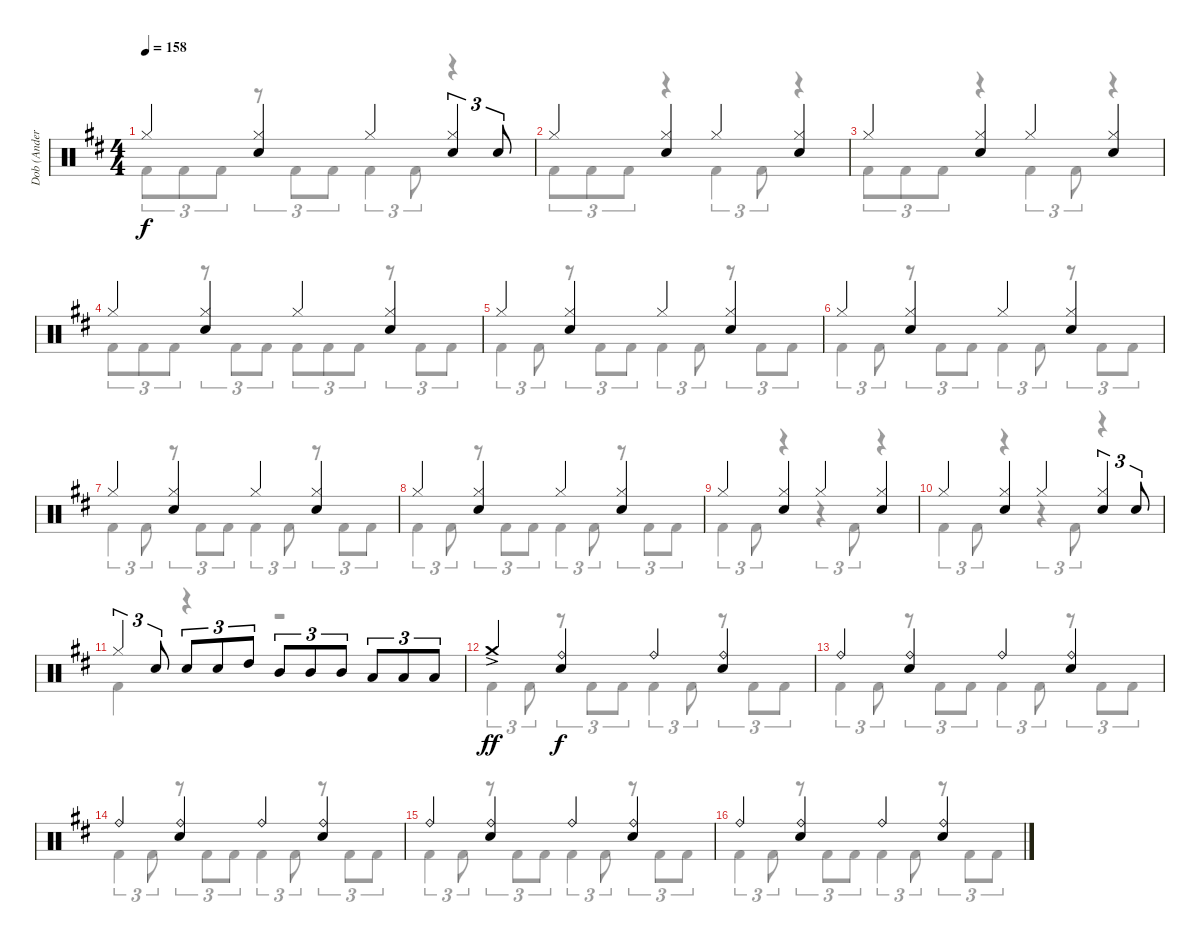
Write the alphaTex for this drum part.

\track ("Dob (Anders Johansson)" "Dob (Ander") {instrument percussion}
\staff {score}
\articulation defaults
\voice
\ts (4 4)
\tempo 158
\clef neutral
\ks d "Hi-Hat (closed)".4{dy f}
("Hi-Hat (closed)" "Electric Snare (hit)").4 "Hi-Hat (closed)".4 ("Hi-Hat (closed)" "Electric Snare (hit)").4{tu (3 2)} "Electric Snare (hit)".8{tu (3 2)} |
"Hi-Hat (closed)".4 ("Hi-Hat (closed)" "Electric Snare (hit)").4 "Hi-Hat (closed)".4 ("Hi-Hat (closed)" "Electric Snare (hit)").4 |
"Hi-Hat (closed)".4 ("Hi-Hat (closed)" "Electric Snare (hit)").4 "Hi-Hat (closed)".4 ("Hi-Hat (closed)" "Electric Snare (hit)").4 |
"Hi-Hat (closed)".4 ("Hi-Hat (closed)" "Electric Snare (hit)").4 "Hi-Hat (closed)".4 ("Hi-Hat (closed)" "Electric Snare (hit)").4 |
"Hi-Hat (closed)".4 ("Hi-Hat (closed)" "Electric Snare (hit)").4 "Hi-Hat (closed)".4 ("Hi-Hat (closed)" "Electric Snare (hit)").4 |
"Hi-Hat (closed)".4 ("Hi-Hat (closed)" "Electric Snare (hit)").4 "Hi-Hat (closed)".4 ("Hi-Hat (closed)" "Electric Snare (hit)").4 |
"Hi-Hat (closed)".4 ("Hi-Hat (closed)" "Electric Snare (hit)").4 "Hi-Hat (closed)".4 ("Hi-Hat (closed)" "Electric Snare (hit)").4 |
"Hi-Hat (closed)".4 ("Hi-Hat (closed)" "Electric Snare (hit)").4 "Hi-Hat (closed)".4 ("Hi-Hat (closed)" "Electric Snare (hit)").4 |
"Hi-Hat (closed)".4 ("Hi-Hat (closed)" "Electric Snare (hit)").4 "Hi-Hat (closed)".4 ("Hi-Hat (closed)" "Electric Snare (hit)").4 |
"Hi-Hat (closed)".4 ("Hi-Hat (closed)" "Electric Snare (hit)").4 "Hi-Hat (closed)".4 ("Hi-Hat (closed)" "Electric Snare (hit)").4{tu (3 2)} "Electric Snare (hit)".8{tu (3 2)} |
"Hi-Hat (closed)".4{tu (3 2)} "Electric Snare (hit)".8{tu (3 2)} "Electric Snare (hit)".8{tu (3 2)} "Electric Snare (hit)".8{tu (3 2)} "High Tom (hit)".8{tu (3 2)} "Mid Tom (hit)".8{tu (3 2)} "Mid Tom (hit)".8{tu (3 2)} "Mid Tom (hit)".8{tu (3 2)} "Low Tom (hit)".8{tu (3 2)} "Low Tom (hit)".8{tu (3 2)} "Low Tom (hit)".8{tu (3 2)} |
"Crash medium (hit)"{ac}.4{dy ff} ("Ride (bell)" "Electric Snare (hit)").4{dy f} "Ride (bell)".4 ("Ride (bell)" "Electric Snare (hit)").4 |
"Ride (bell)".4 ("Ride (bell)" "Electric Snare (hit)").4 "Ride (bell)".4 ("Ride (bell)" "Electric Snare (hit)").4 |
"Ride (bell)".4 ("Ride (bell)" "Electric Snare (hit)").4 "Ride (bell)".4 ("Ride (bell)" "Electric Snare (hit)").4 |
"Ride (bell)".4 ("Ride (bell)" "Electric Snare (hit)").4 "Ride (bell)".4 ("Ride (bell)" "Electric Snare (hit)").4 |
"Ride (bell)".4 ("Ride (bell)" "Electric Snare (hit)").4 "Ride (bell)".4 ("Ride (bell)" "Electric Snare (hit)").4
\voice
\clef neutral
\ottava regular
\simile none
\ks d "Kick (hit) 2".8{tu (3 2) dy f} "Kick (hit) 2".8{tu (3 2)} "Kick (hit) 2".8{tu (3 2)}
r.8{tu (3 2)} "Kick (hit) 2".8{tu (3 2)} "Kick (hit) 2".8{tu (3 2)} "Kick (hit) 2".4{tu (3 2)} "Kick (hit) 2".8{tu (3 2)} r.4 |
"Kick (hit) 2".8{tu (3 2)} "Kick (hit) 2".8{tu (3 2)} "Kick (hit) 2".8{tu (3 2)} r.4 "Kick (hit) 2".4{tu (3 2)} "Kick (hit) 2".8{tu (3 2)} r.4 |
"Kick (hit) 2".8{tu (3 2)} "Kick (hit) 2".8{tu (3 2)} "Kick (hit) 2".8{tu (3 2)} r.4 "Kick (hit) 2".4{tu (3 2)} "Kick (hit) 2".8{tu (3 2)} r.4 |
"Kick (hit) 2".8{tu (3 2)} "Kick (hit) 2".8{tu (3 2)} "Kick (hit) 2".8{tu (3 2)} r.8{tu (3 2)} "Kick (hit) 2".8{tu (3 2)} "Kick (hit) 2".8{tu (3 2)} "Kick (hit) 2".8{tu (3 2)} "Kick (hit) 2".8{tu (3 2)} "Kick (hit) 2".8{tu (3 2)} r.8{tu (3 2)} "Kick (hit) 2".8{tu (3 2)} "Kick (hit) 2".8{tu (3 2)} |
"Kick (hit) 2".4{tu (3 2)} "Kick (hit) 2".8{tu (3 2)} r.8{tu (3 2)} "Kick (hit) 2".8{tu (3 2)} "Kick (hit) 2".8{tu (3 2)} "Kick (hit) 2".4{tu (3 2)} "Kick (hit) 2".8{tu (3 2)} r.8{tu (3 2)} "Kick (hit) 2".8{tu (3 2)} "Kick (hit) 2".8{tu (3 2)} |
"Kick (hit) 2".4{tu (3 2)} "Kick (hit) 2".8{tu (3 2)} r.8{tu (3 2)} "Kick (hit) 2".8{tu (3 2)} "Kick (hit) 2".8{tu (3 2)} "Kick (hit) 2".4{tu (3 2)} "Kick (hit) 2".8{tu (3 2)} r.8{tu (3 2)} "Kick (hit) 2".8{tu (3 2)} "Kick (hit) 2".8{tu (3 2)} |
"Kick (hit) 2".4{tu (3 2)} "Kick (hit) 2".8{tu (3 2)} r.8{tu (3 2)} "Kick (hit) 2".8{tu (3 2)} "Kick (hit) 2".8{tu (3 2)} "Kick (hit) 2".4{tu (3 2)} "Kick (hit) 2".8{tu (3 2)} r.8{tu (3 2)} "Kick (hit) 2".8{tu (3 2)} "Kick (hit) 2".8{tu (3 2)} |
"Kick (hit) 2".4{tu (3 2)} "Kick (hit) 2".8{tu (3 2)} r.8{tu (3 2)} "Kick (hit) 2".8{tu (3 2)} "Kick (hit) 2".8{tu (3 2)} "Kick (hit) 2".4{tu (3 2)} "Kick (hit) 2".8{tu (3 2)} r.8{tu (3 2)} "Kick (hit) 2".8{tu (3 2)} "Kick (hit) 2".8{tu (3 2)} |
"Kick (hit) 2".4{tu (3 2)} "Kick (hit) 2".8{tu (3 2)} r.4 r.4{tu (3 2)} "Kick (hit) 2".8{tu (3 2)} r.4 |
"Kick (hit) 2".4{tu (3 2)} "Kick (hit) 2".8{tu (3 2)} r.4 r.4{tu (3 2)} "Kick (hit) 2".8{tu (3 2)} r.4 |
"Kick (hit) 2".4 r.4 r.2 |
"Kick (hit) 2".4{tu (3 2)} "Kick (hit) 2".8{tu (3 2)} r.8{tu (3 2)} "Kick (hit) 2".8{tu (3 2)} "Kick (hit) 2".8{tu (3 2)} "Kick (hit) 2".4{tu (3 2)} "Kick (hit) 2".8{tu (3 2)} r.8{tu (3 2)} "Kick (hit) 2".8{tu (3 2)} "Kick (hit) 2".8{tu (3 2)} |
"Kick (hit) 2".4{tu (3 2)} "Kick (hit) 2".8{tu (3 2)} r.8{tu (3 2)} "Kick (hit) 2".8{tu (3 2)} "Kick (hit) 2".8{tu (3 2)} "Kick (hit) 2".4{tu (3 2)} "Kick (hit) 2".8{tu (3 2)} r.8{tu (3 2)} "Kick (hit) 2".8{tu (3 2)} "Kick (hit) 2".8{tu (3 2)} |
"Kick (hit) 2".4{tu (3 2)} "Kick (hit) 2".8{tu (3 2)} r.8{tu (3 2)} "Kick (hit) 2".8{tu (3 2)} "Kick (hit) 2".8{tu (3 2)} "Kick (hit) 2".4{tu (3 2)} "Kick (hit) 2".8{tu (3 2)} r.8{tu (3 2)} "Kick (hit) 2".8{tu (3 2)} "Kick (hit) 2".8{tu (3 2)} |
"Kick (hit) 2".4{tu (3 2)} "Kick (hit) 2".8{tu (3 2)} r.8{tu (3 2)} "Kick (hit) 2".8{tu (3 2)} "Kick (hit) 2".8{tu (3 2)} "Kick (hit) 2".4{tu (3 2)} "Kick (hit) 2".8{tu (3 2)} r.8{tu (3 2)} "Kick (hit) 2".8{tu (3 2)} "Kick (hit) 2".8{tu (3 2)} |
"Kick (hit) 2".4{tu (3 2)} "Kick (hit) 2".8{tu (3 2)} r.8{tu (3 2)} "Kick (hit) 2".8{tu (3 2)} "Kick (hit) 2".8{tu (3 2)} "Kick (hit) 2".4{tu (3 2)} "Kick (hit) 2".8{tu (3 2)} r.8{tu (3 2)} "Kick (hit) 2".8{tu (3 2)} "Kick (hit) 2".8{tu (3 2)}
